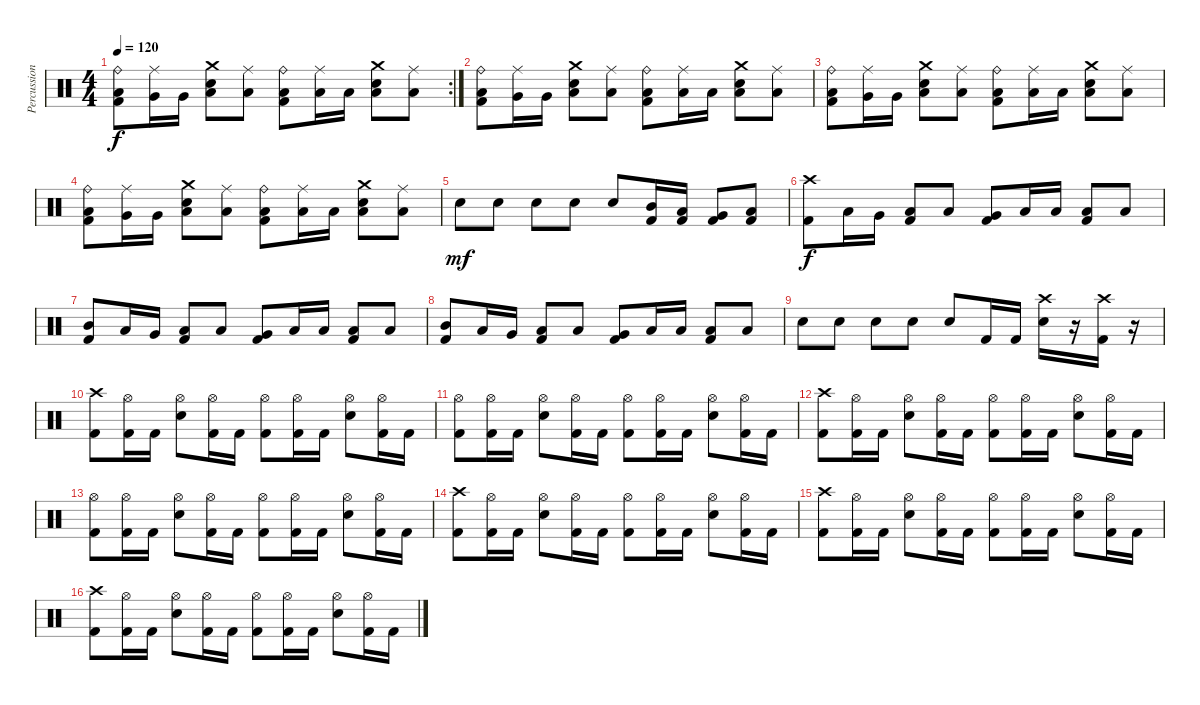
\track ("Percussion" "Percussion") {instrument percussion}
\staff {score}
\articulation defaults
\rc 2
\ts (4 4)
\tempo 120
\clef neutral
\ks c
("Ride (bell)" "Low Floor Tom (hit)" "Kick (hit) 2").8{dy f} ("Very Low Tom (hit)" "Ride (middle)").16 "Very Low Tom (hit)".16 ("Crash medium (hit)" "Low Floor Tom (hit)" "Snare (hit) 2").8 ("Low Floor Tom (hit)" "Ride (middle)").8 ("Ride (bell)" "Low Floor Tom (hit)" "Kick (hit) 2").8 ("Low Floor Tom (hit)" "Ride (middle)").16 "Low Floor Tom (hit)".16 ("Crash medium (hit)" "Low Floor Tom (hit)" "Snare (hit) 2").8 ("Low Floor Tom (hit)" "Ride (middle)").8 |
("Ride (bell)" "Low Floor Tom (hit)" "Kick (hit) 2").8 ("Very Low Tom (hit)" "Ride (middle)").16 "Very Low Tom (hit)".16 ("Crash medium (hit)" "Low Floor Tom (hit)" "Snare (hit) 2").8 ("Low Floor Tom (hit)" "Ride (middle)").8 ("Ride (bell)" "Low Floor Tom (hit)" "Kick (hit) 2").8 ("Low Floor Tom (hit)" "Ride (middle)").16 "Low Floor Tom (hit)".16 ("Crash medium (hit)" "Low Floor Tom (hit)" "Snare (hit) 2").8 ("Low Floor Tom (hit)" "Ride (middle)").8 |
("Ride (bell)" "Low Floor Tom (hit)" "Kick (hit) 2").8 ("Very Low Tom (hit)" "Ride (middle)").16 "Very Low Tom (hit)".16 ("Crash medium (hit)" "Low Floor Tom (hit)" "Snare (hit) 2").8 ("Low Floor Tom (hit)" "Ride (middle)").8 ("Ride (bell)" "Low Floor Tom (hit)" "Kick (hit) 2").8 ("Low Floor Tom (hit)" "Ride (middle)").16 "Low Floor Tom (hit)".16 ("Crash medium (hit)" "Low Floor Tom (hit)" "Snare (hit) 2").8 ("Low Floor Tom (hit)" "Ride (middle)").8 |
("Ride (bell)" "Low Floor Tom (hit)" "Kick (hit) 2").8 ("Very Low Tom (hit)" "Ride (middle)").16 "Very Low Tom (hit)".16 ("Crash medium (hit)" "Low Floor Tom (hit)" "Snare (hit) 2").8 ("Low Floor Tom (hit)" "Ride (middle)").8 ("Ride (bell)" "Low Floor Tom (hit)" "Kick (hit) 2").8 ("Low Floor Tom (hit)" "Ride (middle)").16 "Low Floor Tom (hit)".16 ("Crash medium (hit)" "Low Floor Tom (hit)" "Snare (hit) 2").8 ("Low Floor Tom (hit)" "Ride (middle)").8 |
"Snare (hit) 2".8{dy mf} "Snare (hit) 2".8 "Snare (hit) 2".8 "Snare (hit) 2".8 "Snare (hit) 2".8 ("Mid Tom (hit)" "Kick (hit) 2").16 ("Low Tom (hit)" "Kick (hit) 2").16 ("Very Low Tom (hit)" "Kick (hit) 2").8 ("Low Floor Tom (hit)" "Kick (hit) 2").8 |
("Crash high (hit)" "Kick (hit) 2").8{dy f} "Low Tom (hit)".16 "Very Low Tom (hit)".16 ("Low Floor Tom (hit)" "Kick (hit) 2").8 "Low Floor Tom (hit)".8 ("Very Low Tom (hit)" "Kick (hit) 2").8 "Low Floor Tom (hit)".16 "Low Floor Tom (hit)".16 ("Low Floor Tom (hit)" "Kick (hit) 2").8 "Low Floor Tom (hit)".8 |
("Mid Tom (hit)" "Kick (hit) 2").8 "Low Tom (hit)".16 "Very Low Tom (hit)".16 ("Low Floor Tom (hit)" "Kick (hit) 2").8 "Low Floor Tom (hit)".8 ("Very Low Tom (hit)" "Kick (hit) 2").8 "Low Floor Tom (hit)".16 "Low Floor Tom (hit)".16 ("Low Floor Tom (hit)" "Kick (hit) 2").8 "Low Floor Tom (hit)".8 |
("Mid Tom (hit)" "Kick (hit) 2").8 "Low Tom (hit)".16 "Very Low Tom (hit)".16 ("Low Floor Tom (hit)" "Kick (hit) 2").8 "Low Floor Tom (hit)".8 ("Very Low Tom (hit)" "Kick (hit) 2").8 "Low Floor Tom (hit)".16 "Low Floor Tom (hit)".16 ("Low Floor Tom (hit)" "Kick (hit) 2").8 "Low Floor Tom (hit)".8 |
"Snare (hit) 2".8 "Snare (hit) 2".8 "Snare (hit) 2".8 "Snare (hit) 2".8 "Snare (hit) 2".8 "Kick (hit) 2".16 "Kick (hit) 2".16 ("Crash high (hit)" "Snare (hit) 2").16 r.16 ("Crash high (hit)" "Kick (hit) 2").16 r.16 |
("Crash high (hit)" "Kick (hit) 2").8 ("Hi-Hat (open)" "Kick (hit) 2").16 "Kick (hit) 2".16 ("Hi-Hat (open)" "Snare (hit) 2").8 ("Hi-Hat (open)" "Kick (hit) 2").16 "Kick (hit) 2".16 ("Hi-Hat (open)" "Kick (hit) 2").8 ("Hi-Hat (open)" "Kick (hit) 2").16 "Kick (hit) 2".16 ("Hi-Hat (open)" "Snare (hit) 2").8 ("Hi-Hat (open)" "Kick (hit) 2").16 "Kick (hit) 2".16 |
("Hi-Hat (open)" "Kick (hit) 2").8 ("Hi-Hat (open)" "Kick (hit) 2").16 "Kick (hit) 2".16 ("Hi-Hat (open)" "Snare (hit) 2").8 ("Hi-Hat (open)" "Kick (hit) 2").16 "Kick (hit) 2".16 ("Hi-Hat (open)" "Kick (hit) 2").8 ("Hi-Hat (open)" "Kick (hit) 2").16 "Kick (hit) 2".16 ("Hi-Hat (open)" "Snare (hit) 2").8 ("Hi-Hat (open)" "Kick (hit) 2").16 "Kick (hit) 2".16 |
("Crash high (hit)" "Kick (hit) 2").8 ("Hi-Hat (open)" "Kick (hit) 2").16 "Kick (hit) 2".16 ("Hi-Hat (open)" "Snare (hit) 2").8 ("Hi-Hat (open)" "Kick (hit) 2").16 "Kick (hit) 2".16 ("Hi-Hat (open)" "Kick (hit) 2").8 ("Hi-Hat (open)" "Kick (hit) 2").16 "Kick (hit) 2".16 ("Hi-Hat (open)" "Snare (hit) 2").8 ("Hi-Hat (open)" "Kick (hit) 2").16 "Kick (hit) 2".16 |
("Hi-Hat (open)" "Kick (hit) 2").8 ("Hi-Hat (open)" "Kick (hit) 2").16 "Kick (hit) 2".16 ("Hi-Hat (open)" "Snare (hit) 2").8 ("Hi-Hat (open)" "Kick (hit) 2").16 "Kick (hit) 2".16 ("Hi-Hat (open)" "Kick (hit) 2").8 ("Hi-Hat (open)" "Kick (hit) 2").16 "Kick (hit) 2".16 ("Hi-Hat (open)" "Snare (hit) 2").8 ("Hi-Hat (open)" "Kick (hit) 2").16 "Kick (hit) 2".16 |
("Crash high (hit)" "Kick (hit) 2").8 ("Hi-Hat (open)" "Kick (hit) 2").16 "Kick (hit) 2".16 ("Hi-Hat (open)" "Snare (hit) 2").8 ("Hi-Hat (open)" "Kick (hit) 2").16 "Kick (hit) 2".16 ("Hi-Hat (open)" "Kick (hit) 2").8 ("Hi-Hat (open)" "Kick (hit) 2").16 "Kick (hit) 2".16 ("Hi-Hat (open)" "Snare (hit) 2").8 ("Hi-Hat (open)" "Kick (hit) 2").16 "Kick (hit) 2".16 |
("Crash high (hit)" "Kick (hit) 2").8 ("Hi-Hat (open)" "Kick (hit) 2").16 "Kick (hit) 2".16 ("Hi-Hat (open)" "Snare (hit) 2").8 ("Hi-Hat (open)" "Kick (hit) 2").16 "Kick (hit) 2".16 ("Hi-Hat (open)" "Kick (hit) 2").8 ("Hi-Hat (open)" "Kick (hit) 2").16 "Kick (hit) 2".16 ("Hi-Hat (open)" "Snare (hit) 2").8 ("Hi-Hat (open)" "Kick (hit) 2").16 "Kick (hit) 2".16 |
("Crash high (hit)" "Kick (hit) 2").8 ("Hi-Hat (open)" "Kick (hit) 2").16 "Kick (hit) 2".16 ("Hi-Hat (open)" "Snare (hit) 2").8 ("Hi-Hat (open)" "Kick (hit) 2").16 "Kick (hit) 2".16 ("Hi-Hat (open)" "Kick (hit) 2").8 ("Hi-Hat (open)" "Kick (hit) 2").16 "Kick (hit) 2".16 ("Hi-Hat (open)" "Snare (hit) 2").8 ("Hi-Hat (open)" "Kick (hit) 2").16 "Kick (hit) 2".16
